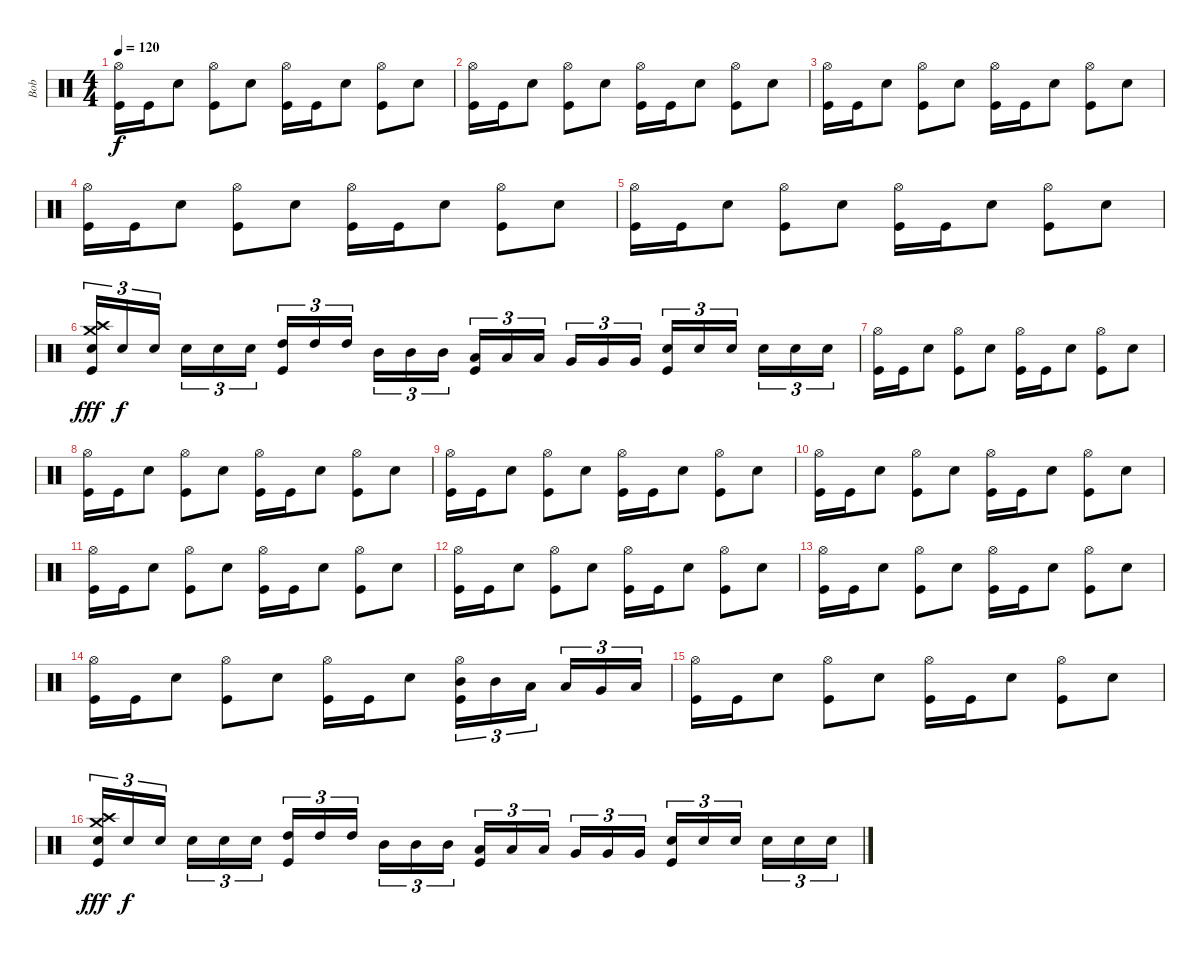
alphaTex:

\track ("Bob" "Bob") {instrument percussion}
\staff {score}
\articulation defaults
\ts (4 4)
\tempo 120
\clef neutral
\ks c
("Hi-Hat (open)" "Kick (hit)").16{dy f} "Kick (hit)".16 "Snare (hit) 2".8 ("Hi-Hat (open)" "Kick (hit)").8 "Snare (hit) 2".8 ("Hi-Hat (open)" "Kick (hit)").16 "Kick (hit)".16 "Snare (hit) 2".8 ("Hi-Hat (open)" "Kick (hit)").8 "Snare (hit) 2".8 |
("Hi-Hat (open)" "Kick (hit)").16 "Kick (hit)".16 "Snare (hit) 2".8 ("Hi-Hat (open)" "Kick (hit)").8 "Snare (hit) 2".8 ("Hi-Hat (open)" "Kick (hit)").16 "Kick (hit)".16 "Snare (hit) 2".8 ("Hi-Hat (open)" "Kick (hit)").8 "Snare (hit) 2".8 |
("Hi-Hat (open)" "Kick (hit)").16 "Kick (hit)".16 "Snare (hit) 2".8 ("Hi-Hat (open)" "Kick (hit)").8 "Snare (hit) 2".8 ("Hi-Hat (open)" "Kick (hit)").16 "Kick (hit)".16 "Snare (hit) 2".8 ("Hi-Hat (open)" "Kick (hit)").8 "Snare (hit) 2".8 |
("Hi-Hat (open)" "Kick (hit)").16 "Kick (hit)".16 "Snare (hit) 2".8 ("Hi-Hat (open)" "Kick (hit)").8 "Snare (hit) 2".8 ("Hi-Hat (open)" "Kick (hit)").16 "Kick (hit)".16 "Snare (hit) 2".8 ("Hi-Hat (open)" "Kick (hit)").8 "Snare (hit) 2".8 |
("Hi-Hat (open)" "Kick (hit)").16 "Kick (hit)".16 "Snare (hit) 2".8 ("Hi-Hat (open)" "Kick (hit)").8 "Snare (hit) 2".8 ("Hi-Hat (open)" "Kick (hit)").16 "Kick (hit)".16 "Snare (hit) 2".8 ("Hi-Hat (open)" "Kick (hit)").8 "Snare (hit) 2".8 |
("Crash high (hit)" "Crash medium (hit)" "Electric Snare (hit)" "Kick (hit)").16{tu (3 2) dy fff} "Electric Snare (hit)".16{tu (3 2) dy f} "Electric Snare (hit)".16{tu (3 2)} "Snare (hit) 2".16{tu (3 2)} "Snare (hit) 2".16{tu (3 2)} "Snare (hit) 2".16{tu (3 2)} ("High Tom (hit)" "Kick (hit)").16{tu (3 2)} "High Tom (hit)".16{tu (3 2)} "High Tom (hit)".16{tu (3 2)} "Mid Tom (hit)".16{tu (3 2)} "Mid Tom (hit)".16{tu (3 2)} "Mid Tom (hit)".16{tu (3 2)} ("Low Tom (hit)" "Kick (hit)").16{tu (3 2)} "Low Tom (hit)".16{tu (3 2)} "Low Tom (hit)".16{tu (3 2)} "Very Low Tom (hit)".16{tu (3 2)} "Very Low Tom (hit)".16{tu (3 2)} "Very Low Tom (hit)".16{tu (3 2)} ("Snare (hit) 2" "Kick (hit)").16{tu (3 2)} "Snare (hit) 2".16{tu (3 2)} "Snare (hit) 2".16{tu (3 2)} "Snare (hit) 2".16{tu (3 2)} "Snare (hit) 2".16{tu (3 2)} "Snare (hit) 2".16{tu (3 2)} |
("Hi-Hat (open)" "Kick (hit)").16 "Kick (hit)".16 "Snare (hit) 2".8 ("Hi-Hat (open)" "Kick (hit)").8 "Snare (hit) 2".8 ("Hi-Hat (open)" "Kick (hit)").16 "Kick (hit)".16 "Snare (hit) 2".8 ("Hi-Hat (open)" "Kick (hit)").8 "Snare (hit) 2".8 |
("Hi-Hat (open)" "Kick (hit)").16 "Kick (hit)".16 "Snare (hit) 2".8 ("Hi-Hat (open)" "Kick (hit)").8 "Snare (hit) 2".8 ("Hi-Hat (open)" "Kick (hit)").16 "Kick (hit)".16 "Snare (hit) 2".8 ("Hi-Hat (open)" "Kick (hit)").8 "Snare (hit) 2".8 |
("Hi-Hat (open)" "Kick (hit)").16 "Kick (hit)".16 "Snare (hit) 2".8 ("Hi-Hat (open)" "Kick (hit)").8 "Snare (hit) 2".8 ("Hi-Hat (open)" "Kick (hit)").16 "Kick (hit)".16 "Snare (hit) 2".8 ("Hi-Hat (open)" "Kick (hit)").8 "Snare (hit) 2".8 |
("Hi-Hat (open)" "Kick (hit)").16 "Kick (hit)".16 "Snare (hit) 2".8 ("Hi-Hat (open)" "Kick (hit)").8 "Snare (hit) 2".8 ("Hi-Hat (open)" "Kick (hit)").16 "Kick (hit)".16 "Snare (hit) 2".8 ("Hi-Hat (open)" "Kick (hit)").8 "Snare (hit) 2".8 |
("Hi-Hat (open)" "Kick (hit)").16 "Kick (hit)".16 "Snare (hit) 2".8 ("Hi-Hat (open)" "Kick (hit)").8 "Snare (hit) 2".8 ("Hi-Hat (open)" "Kick (hit)").16 "Kick (hit)".16 "Snare (hit) 2".8 ("Hi-Hat (open)" "Kick (hit)").8 "Snare (hit) 2".8 |
("Hi-Hat (open)" "Kick (hit)").16 "Kick (hit)".16 "Snare (hit) 2".8 ("Hi-Hat (open)" "Kick (hit)").8 "Snare (hit) 2".8 ("Hi-Hat (open)" "Kick (hit)").16 "Kick (hit)".16 "Snare (hit) 2".8 ("Hi-Hat (open)" "Kick (hit)").8 "Snare (hit) 2".8 |
("Hi-Hat (open)" "Kick (hit)").16 "Kick (hit)".16 "Snare (hit) 2".8 ("Hi-Hat (open)" "Kick (hit)").8 "Snare (hit) 2".8 ("Hi-Hat (open)" "Kick (hit)").16 "Kick (hit)".16 "Snare (hit) 2".8 ("Hi-Hat (open)" "Kick (hit)").8 "Snare (hit) 2".8 |
("Hi-Hat (open)" "Kick (hit)").16 "Kick (hit)".16 "Snare (hit) 2".8 ("Hi-Hat (open)" "Kick (hit)").8 "Snare (hit) 2".8 ("Hi-Hat (open)" "Kick (hit)").16 "Kick (hit)".16 "Snare (hit) 2".8 ("Hi-Hat (open)" "Mid Tom (hit)" "Kick (hit)").16{tu (3 2)} "Mid Tom (hit)".16{tu (3 2)} "Low Tom (hit)".16{tu (3 2)} "Low Tom (hit)".16{tu (3 2)} "Very Low Tom (hit)".16{tu (3 2)} "Low Floor Tom (hit)".16{tu (3 2)} |
("Hi-Hat (open)" "Kick (hit)").16 "Kick (hit)".16 "Snare (hit) 2".8 ("Hi-Hat (open)" "Kick (hit)").8 "Snare (hit) 2".8 ("Hi-Hat (open)" "Kick (hit)").16 "Kick (hit)".16 "Snare (hit) 2".8 ("Hi-Hat (open)" "Kick (hit)").8 "Snare (hit) 2".8 |
("Crash high (hit)" "Crash medium (hit)" "Electric Snare (hit)" "Kick (hit)").16{tu (3 2) dy fff} "Electric Snare (hit)".16{tu (3 2) dy f} "Electric Snare (hit)".16{tu (3 2)} "Snare (hit) 2".16{tu (3 2)} "Snare (hit) 2".16{tu (3 2)} "Snare (hit) 2".16{tu (3 2)} ("High Tom (hit)" "Kick (hit)").16{tu (3 2)} "High Tom (hit)".16{tu (3 2)} "High Tom (hit)".16{tu (3 2)} "Mid Tom (hit)".16{tu (3 2)} "Mid Tom (hit)".16{tu (3 2)} "Mid Tom (hit)".16{tu (3 2)} ("Low Tom (hit)" "Kick (hit)").16{tu (3 2)} "Low Tom (hit)".16{tu (3 2)} "Low Tom (hit)".16{tu (3 2)} "Very Low Tom (hit)".16{tu (3 2)} "Very Low Tom (hit)".16{tu (3 2)} "Very Low Tom (hit)".16{tu (3 2)} ("Snare (hit) 2" "Kick (hit)").16{tu (3 2)} "Snare (hit) 2".16{tu (3 2)} "Snare (hit) 2".16{tu (3 2)} "Snare (hit) 2".16{tu (3 2)} "Snare (hit) 2".16{tu (3 2)} "Snare (hit) 2".16{tu (3 2)}
